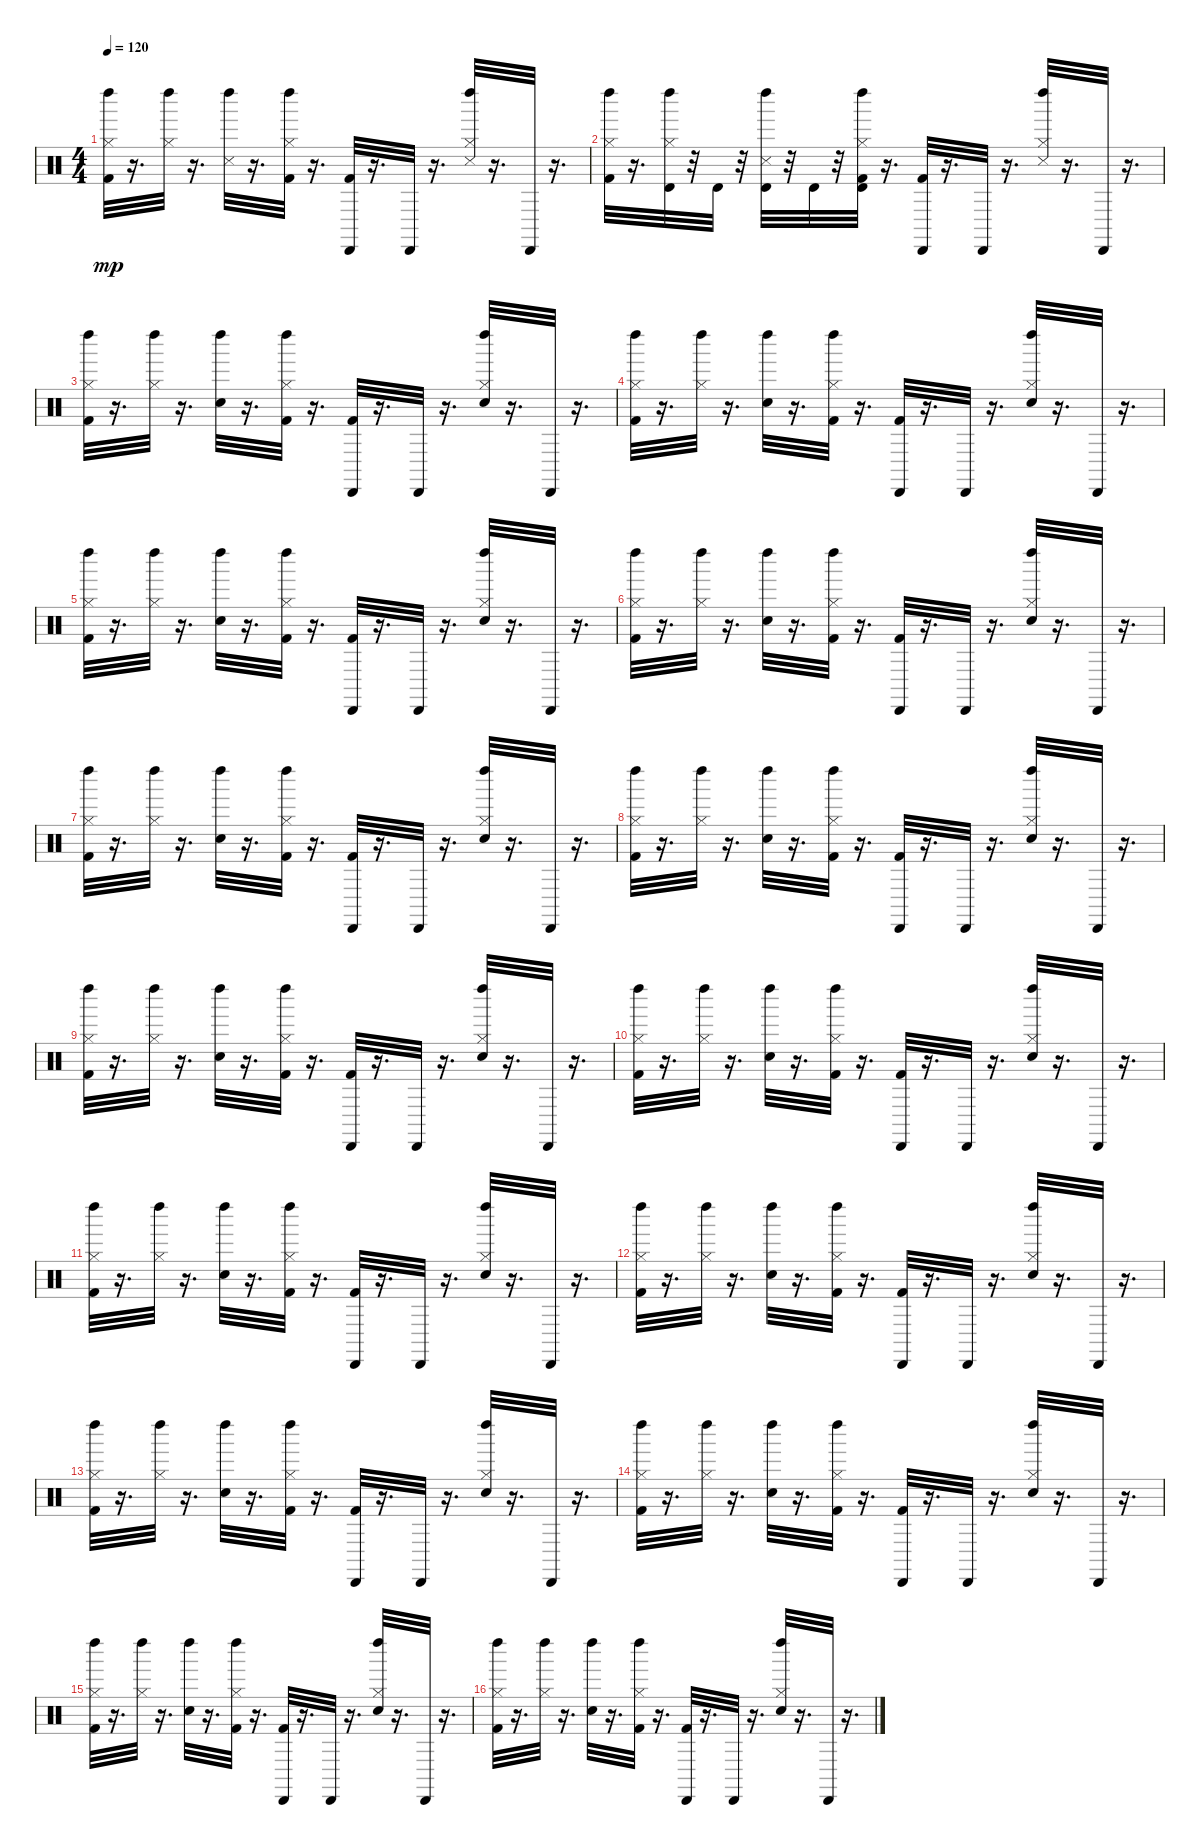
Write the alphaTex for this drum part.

\track "" {instrument percussion}
\staff {score}
\articulation defaults
\ts (4 4)
\tempo 120
\clef neutral
\ks c
("Left Maraca (hit)" "Hi-Hat (closed)" "Kick (hit) 2").32{dy mp} r.16{d} ("Left Maraca (hit)" "Hi-Hat (closed)").32 r.16{d} ("Snare (side stick) 3" "Left Maraca (hit)").32 r.16{d} ("Kick (hit) 2" "Left Maraca (hit)" "Hi-Hat (closed)").32 r.16{d} ("Kick (hit) 2" "Cabasa (hit)").32 r.16{d} "Cabasa (hit)".32 r.16{d} ("Snare (side stick) 3" "Hi-Hat (closed)" "Left Maraca (hit)").32 r.16{d} "Cabasa (hit)".32 r.16{d} |
("Left Maraca (hit)" "Hi-Hat (closed)" "Kick (hit) 2").32 r.16{d} ("Timbale high (hit)" "Left Maraca (hit)" "Hi-Hat (closed)").32 r.32 "Timbale high (hit)".32 r.32 ("Timbale high (hit)" "Snare (side stick) 3" "Left Maraca (hit)").32 r.32 "Timbale high (hit)".32 r.32 ("Timbale high (hit)" "Kick (hit) 2" "Left Maraca (hit)" "Hi-Hat (closed)").32 r.16{d} ("Kick (hit) 2" "Cabasa (hit)").32 r.16{d} "Cabasa (hit)".32 r.16{d} ("Snare (side stick) 3" "Hi-Hat (closed)" "Left Maraca (hit)").32 r.16{d} "Cabasa (hit)".32 r.16{d} |
("Left Maraca (hit)" "Hi-Hat (closed)" "Kick (hit) 2").32 r.16{d} ("Left Maraca (hit)" "Hi-Hat (closed)").32 r.16{d} ("Left Maraca (hit)" "Electric Snare (hit)").32 r.16{d} ("Kick (hit) 2" "Left Maraca (hit)" "Hi-Hat (closed)").32 r.16{d} ("Kick (hit) 2" "Cabasa (hit)").32 r.16{d} "Cabasa (hit)".32 r.16{d} ("Hi-Hat (closed)" "Left Maraca (hit)" "Electric Snare (hit)").32 r.16{d} "Cabasa (hit)".32 r.16{d} |
("Left Maraca (hit)" "Hi-Hat (closed)" "Kick (hit) 2").32 r.16{d} ("Left Maraca (hit)" "Hi-Hat (closed)").32 r.16{d} ("Left Maraca (hit)" "Electric Snare (hit)").32 r.16{d} ("Kick (hit) 2" "Left Maraca (hit)" "Hi-Hat (closed)").32 r.16{d} ("Kick (hit) 2" "Cabasa (hit)").32 r.16{d} "Cabasa (hit)".32 r.16{d} ("Hi-Hat (closed)" "Left Maraca (hit)" "Electric Snare (hit)").32 r.16{d} "Cabasa (hit)".32 r.16{d} |
("Left Maraca (hit)" "Hi-Hat (closed)" "Kick (hit) 2").32 r.16{d} ("Left Maraca (hit)" "Hi-Hat (closed)").32 r.16{d} ("Left Maraca (hit)" "Electric Snare (hit)").32 r.16{d} ("Kick (hit) 2" "Left Maraca (hit)" "Hi-Hat (closed)").32 r.16{d} ("Kick (hit) 2" "Cabasa (hit)").32 r.16{d} "Cabasa (hit)".32 r.16{d} ("Hi-Hat (closed)" "Left Maraca (hit)" "Electric Snare (hit)").32 r.16{d} "Cabasa (hit)".32 r.16{d} |
("Left Maraca (hit)" "Hi-Hat (closed)" "Kick (hit) 2").32 r.16{d} ("Left Maraca (hit)" "Hi-Hat (closed)").32 r.16{d} ("Left Maraca (hit)" "Electric Snare (hit)").32 r.16{d} ("Kick (hit) 2" "Left Maraca (hit)" "Hi-Hat (closed)").32 r.16{d} ("Kick (hit) 2" "Cabasa (hit)").32 r.16{d} "Cabasa (hit)".32 r.16{d} ("Hi-Hat (closed)" "Left Maraca (hit)" "Electric Snare (hit)").32 r.16{d} "Cabasa (hit)".32 r.16{d} |
("Left Maraca (hit)" "Hi-Hat (closed)" "Kick (hit) 2").32 r.16{d} ("Left Maraca (hit)" "Hi-Hat (closed)").32 r.16{d} ("Left Maraca (hit)" "Electric Snare (hit)").32 r.16{d} ("Kick (hit) 2" "Left Maraca (hit)" "Hi-Hat (closed)").32 r.16{d} ("Kick (hit) 2" "Cabasa (hit)").32 r.16{d} "Cabasa (hit)".32 r.16{d} ("Hi-Hat (closed)" "Left Maraca (hit)" "Electric Snare (hit)").32 r.16{d} "Cabasa (hit)".32 r.16{d} |
("Left Maraca (hit)" "Hi-Hat (closed)" "Kick (hit) 2").32 r.16{d} ("Left Maraca (hit)" "Hi-Hat (closed)").32 r.16{d} ("Left Maraca (hit)" "Electric Snare (hit)").32 r.16{d} ("Kick (hit) 2" "Left Maraca (hit)" "Hi-Hat (closed)").32 r.16{d} ("Kick (hit) 2" "Cabasa (hit)").32 r.16{d} "Cabasa (hit)".32 r.16{d} ("Hi-Hat (closed)" "Left Maraca (hit)" "Electric Snare (hit)").32 r.16{d} "Cabasa (hit)".32 r.16{d} |
("Left Maraca (hit)" "Hi-Hat (closed)" "Kick (hit) 2").32 r.16{d} ("Left Maraca (hit)" "Hi-Hat (closed)").32 r.16{d} ("Left Maraca (hit)" "Electric Snare (hit)").32 r.16{d} ("Kick (hit) 2" "Left Maraca (hit)" "Hi-Hat (closed)").32 r.16{d} ("Kick (hit) 2" "Cabasa (hit)").32 r.16{d} "Cabasa (hit)".32 r.16{d} ("Hi-Hat (closed)" "Left Maraca (hit)" "Electric Snare (hit)").32 r.16{d} "Cabasa (hit)".32 r.16{d} |
("Left Maraca (hit)" "Hi-Hat (closed)" "Kick (hit) 2").32 r.16{d} ("Left Maraca (hit)" "Hi-Hat (closed)").32 r.16{d} ("Left Maraca (hit)" "Electric Snare (hit)").32 r.16{d} ("Kick (hit) 2" "Left Maraca (hit)" "Hi-Hat (closed)").32 r.16{d} ("Kick (hit) 2" "Cabasa (hit)").32 r.16{d} "Cabasa (hit)".32 r.16{d} ("Hi-Hat (closed)" "Left Maraca (hit)" "Electric Snare (hit)").32 r.16{d} "Cabasa (hit)".32 r.16{d} |
("Left Maraca (hit)" "Hi-Hat (closed)" "Kick (hit) 2").32 r.16{d} ("Left Maraca (hit)" "Hi-Hat (closed)").32 r.16{d} ("Left Maraca (hit)" "Electric Snare (hit)").32 r.16{d} ("Kick (hit) 2" "Left Maraca (hit)" "Hi-Hat (closed)").32 r.16{d} ("Kick (hit) 2" "Cabasa (hit)").32 r.16{d} "Cabasa (hit)".32 r.16{d} ("Hi-Hat (closed)" "Left Maraca (hit)" "Electric Snare (hit)").32 r.16{d} "Cabasa (hit)".32 r.16{d} |
("Left Maraca (hit)" "Hi-Hat (closed)" "Kick (hit) 2").32 r.16{d} ("Left Maraca (hit)" "Hi-Hat (closed)").32 r.16{d} ("Left Maraca (hit)" "Electric Snare (hit)").32 r.16{d} ("Kick (hit) 2" "Left Maraca (hit)" "Hi-Hat (closed)").32 r.16{d} ("Kick (hit) 2" "Cabasa (hit)").32 r.16{d} "Cabasa (hit)".32 r.16{d} ("Hi-Hat (closed)" "Left Maraca (hit)" "Electric Snare (hit)").32 r.16{d} "Cabasa (hit)".32 r.16{d} |
("Left Maraca (hit)" "Hi-Hat (closed)" "Kick (hit) 2").32 r.16{d} ("Left Maraca (hit)" "Hi-Hat (closed)").32 r.16{d} ("Left Maraca (hit)" "Electric Snare (hit)").32 r.16{d} ("Kick (hit) 2" "Left Maraca (hit)" "Hi-Hat (closed)").32 r.16{d} ("Kick (hit) 2" "Cabasa (hit)").32 r.16{d} "Cabasa (hit)".32 r.16{d} ("Hi-Hat (closed)" "Left Maraca (hit)" "Electric Snare (hit)").32 r.16{d} "Cabasa (hit)".32 r.16{d} |
("Left Maraca (hit)" "Hi-Hat (closed)" "Kick (hit) 2").32 r.16{d} ("Left Maraca (hit)" "Hi-Hat (closed)").32 r.16{d} ("Left Maraca (hit)" "Electric Snare (hit)").32 r.16{d} ("Kick (hit) 2" "Left Maraca (hit)" "Hi-Hat (closed)").32 r.16{d} ("Kick (hit) 2" "Cabasa (hit)").32 r.16{d} "Cabasa (hit)".32 r.16{d} ("Hi-Hat (closed)" "Left Maraca (hit)" "Electric Snare (hit)").32 r.16{d} "Cabasa (hit)".32 r.16{d} |
("Left Maraca (hit)" "Hi-Hat (closed)" "Kick (hit) 2").32 r.16{d} ("Left Maraca (hit)" "Hi-Hat (closed)").32 r.16{d} ("Left Maraca (hit)" "Electric Snare (hit)").32 r.16{d} ("Kick (hit) 2" "Left Maraca (hit)" "Hi-Hat (closed)").32 r.16{d} ("Kick (hit) 2" "Cabasa (hit)").32 r.16{d} "Cabasa (hit)".32 r.16{d} ("Hi-Hat (closed)" "Left Maraca (hit)" "Electric Snare (hit)").32 r.16{d} "Cabasa (hit)".32 r.16{d} |
("Left Maraca (hit)" "Hi-Hat (closed)" "Kick (hit) 2").32 r.16{d} ("Left Maraca (hit)" "Hi-Hat (closed)").32 r.16{d} ("Left Maraca (hit)" "Electric Snare (hit)").32 r.16{d} ("Kick (hit) 2" "Left Maraca (hit)" "Hi-Hat (closed)").32 r.16{d} ("Kick (hit) 2" "Cabasa (hit)").32 r.16{d} "Cabasa (hit)".32 r.16{d} ("Hi-Hat (closed)" "Left Maraca (hit)" "Electric Snare (hit)").32 r.16{d} "Cabasa (hit)".32 r.16{d}
